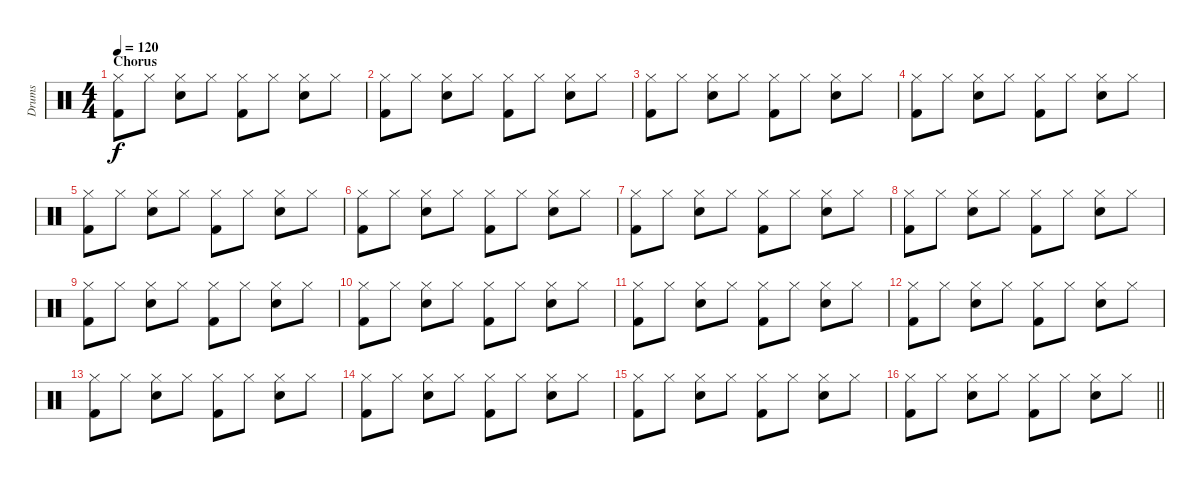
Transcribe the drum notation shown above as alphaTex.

\track ("Drums" "Drums") {instrument percussion}
\staff {score}
\articulation defaults
\ts (4 4)
\section ("" "Chorus")
\tempo 120
\clef neutral
\ks c
("Hi-Hat (closed)" "Kick (hit) 2").8{dy f volume 14} "Hi-Hat (closed)".8 ("Hi-Hat (closed)" "Snare (hit) 2").8 "Hi-Hat (closed)".8 ("Hi-Hat (closed)" "Kick (hit) 2").8 "Hi-Hat (closed)".8 ("Hi-Hat (closed)" "Snare (hit) 2").8 "Hi-Hat (closed)".8 |
("Hi-Hat (closed)" "Kick (hit) 2").8 "Hi-Hat (closed)".8 ("Hi-Hat (closed)" "Snare (hit) 2").8 "Hi-Hat (closed)".8 ("Hi-Hat (closed)" "Kick (hit) 2").8 "Hi-Hat (closed)".8 ("Hi-Hat (closed)" "Snare (hit) 2").8 "Hi-Hat (closed)".8 |
("Hi-Hat (closed)" "Kick (hit) 2").8 "Hi-Hat (closed)".8 ("Hi-Hat (closed)" "Snare (hit) 2").8 "Hi-Hat (closed)".8 ("Hi-Hat (closed)" "Kick (hit) 2").8 "Hi-Hat (closed)".8 ("Hi-Hat (closed)" "Snare (hit) 2").8 "Hi-Hat (closed)".8 |
("Hi-Hat (closed)" "Kick (hit) 2").8 "Hi-Hat (closed)".8 ("Hi-Hat (closed)" "Snare (hit) 2").8 "Hi-Hat (closed)".8 ("Hi-Hat (closed)" "Kick (hit) 2").8 "Hi-Hat (closed)".8 ("Hi-Hat (closed)" "Snare (hit) 2").8 "Hi-Hat (closed)".8 |
("Hi-Hat (closed)" "Kick (hit) 2").8 "Hi-Hat (closed)".8 ("Hi-Hat (closed)" "Snare (hit) 2").8 "Hi-Hat (closed)".8 ("Hi-Hat (closed)" "Kick (hit) 2").8 "Hi-Hat (closed)".8 ("Hi-Hat (closed)" "Snare (hit) 2").8 "Hi-Hat (closed)".8 |
("Hi-Hat (closed)" "Kick (hit) 2").8 "Hi-Hat (closed)".8 ("Hi-Hat (closed)" "Snare (hit) 2").8 "Hi-Hat (closed)".8 ("Hi-Hat (closed)" "Kick (hit) 2").8 "Hi-Hat (closed)".8 ("Hi-Hat (closed)" "Snare (hit) 2").8 "Hi-Hat (closed)".8 |
("Hi-Hat (closed)" "Kick (hit) 2").8 "Hi-Hat (closed)".8 ("Hi-Hat (closed)" "Snare (hit) 2").8 "Hi-Hat (closed)".8 ("Hi-Hat (closed)" "Kick (hit) 2").8 "Hi-Hat (closed)".8 ("Hi-Hat (closed)" "Snare (hit) 2").8 "Hi-Hat (closed)".8 |
("Hi-Hat (closed)" "Kick (hit) 2").8 "Hi-Hat (closed)".8 ("Hi-Hat (closed)" "Snare (hit) 2").8 "Hi-Hat (closed)".8 ("Hi-Hat (closed)" "Kick (hit) 2").8 "Hi-Hat (closed)".8 ("Hi-Hat (closed)" "Snare (hit) 2").8 "Hi-Hat (closed)".8 |
("Hi-Hat (closed)" "Kick (hit) 2").8 "Hi-Hat (closed)".8 ("Hi-Hat (closed)" "Snare (hit) 2").8 "Hi-Hat (closed)".8 ("Hi-Hat (closed)" "Kick (hit) 2").8 "Hi-Hat (closed)".8 ("Hi-Hat (closed)" "Snare (hit) 2").8 "Hi-Hat (closed)".8 |
("Hi-Hat (closed)" "Kick (hit) 2").8 "Hi-Hat (closed)".8 ("Hi-Hat (closed)" "Snare (hit) 2").8 "Hi-Hat (closed)".8 ("Hi-Hat (closed)" "Kick (hit) 2").8 "Hi-Hat (closed)".8 ("Hi-Hat (closed)" "Snare (hit) 2").8 "Hi-Hat (closed)".8 |
("Hi-Hat (closed)" "Kick (hit) 2").8 "Hi-Hat (closed)".8 ("Hi-Hat (closed)" "Snare (hit) 2").8 "Hi-Hat (closed)".8 ("Hi-Hat (closed)" "Kick (hit) 2").8 "Hi-Hat (closed)".8 ("Hi-Hat (closed)" "Snare (hit) 2").8 "Hi-Hat (closed)".8 |
("Hi-Hat (closed)" "Kick (hit) 2").8 "Hi-Hat (closed)".8 ("Hi-Hat (closed)" "Snare (hit) 2").8 "Hi-Hat (closed)".8 ("Hi-Hat (closed)" "Kick (hit) 2").8 "Hi-Hat (closed)".8 ("Hi-Hat (closed)" "Snare (hit) 2").8 "Hi-Hat (closed)".8 |
("Hi-Hat (closed)" "Kick (hit) 2").8 "Hi-Hat (closed)".8 ("Hi-Hat (closed)" "Snare (hit) 2").8 "Hi-Hat (closed)".8 ("Hi-Hat (closed)" "Kick (hit) 2").8 "Hi-Hat (closed)".8 ("Hi-Hat (closed)" "Snare (hit) 2").8 "Hi-Hat (closed)".8 |
("Hi-Hat (closed)" "Kick (hit) 2").8 "Hi-Hat (closed)".8 ("Hi-Hat (closed)" "Snare (hit) 2").8 "Hi-Hat (closed)".8 ("Hi-Hat (closed)" "Kick (hit) 2").8 "Hi-Hat (closed)".8 ("Hi-Hat (closed)" "Snare (hit) 2").8 "Hi-Hat (closed)".8 |
("Hi-Hat (closed)" "Kick (hit) 2").8 "Hi-Hat (closed)".8 ("Hi-Hat (closed)" "Snare (hit) 2").8 "Hi-Hat (closed)".8 ("Hi-Hat (closed)" "Kick (hit) 2").8 "Hi-Hat (closed)".8 ("Hi-Hat (closed)" "Snare (hit) 2").8 "Hi-Hat (closed)".8 |
\barLineRight lightlight
("Hi-Hat (closed)" "Kick (hit) 2").8 "Hi-Hat (closed)".8 ("Hi-Hat (closed)" "Snare (hit) 2").8 "Hi-Hat (closed)".8 ("Hi-Hat (closed)" "Kick (hit) 2").8 "Hi-Hat (closed)".8 ("Hi-Hat (closed)" "Snare (hit) 2").8 "Hi-Hat (closed)".8
